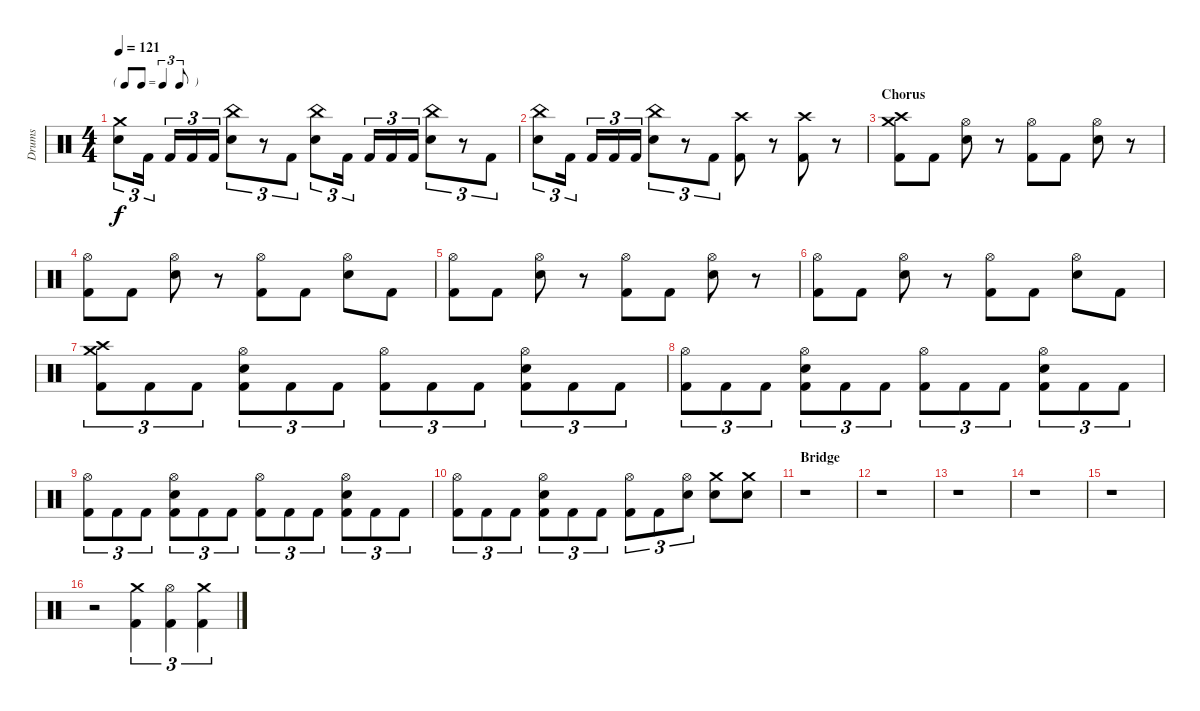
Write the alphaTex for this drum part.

\track ("Drums" "Drums") {instrument percussion}
\staff {score}
\articulation defaults
\ts (4 4)
\tf triplet8th
\tempo 121
\clef neutral
\ks c
("Crash medium (hit)" "Electric Snare (hit)").8{tu (3 2) dy f} "Kick (hit) 2".16{tu (3 2)} "Kick (hit) 2".16{tu (3 2)} "Kick (hit) 2".16{tu (3 2)} "Kick (hit) 2".16{tu (3 2)} ("China (hit)" "Electric Snare (hit)").8{tu (3 2)} r.8{tu (3 2)} "Kick (hit) 2".8{tu (3 2)} ("China (hit)" "Electric Snare (hit)").8{tu (3 2)} "Kick (hit) 2".16{tu (3 2)} "Kick (hit) 2".16{tu (3 2)} "Kick (hit) 2".16{tu (3 2)} "Kick (hit) 2".16{tu (3 2)} ("China (hit)" "Electric Snare (hit)").8{tu (3 2)} r.8{tu (3 2)} "Kick (hit) 2".8{tu (3 2)} |
("China (hit)" "Electric Snare (hit)").8{tu (3 2)} "Kick (hit) 2".16{tu (3 2)} "Kick (hit) 2".16{tu (3 2)} "Kick (hit) 2".16{tu (3 2)} "Kick (hit) 2".16{tu (3 2)} ("China (hit)" "Electric Snare (hit)").8{tu (3 2)} r.8{tu (3 2)} "Kick (hit) 2".8{tu (3 2)} ("Crash high (hit)" "Kick (hit) 2").8 r.8{volume 0} ("Crash high (hit)" "Kick (hit) 2").8{volume 15} r.8{volume 0} |
\section ("" "Chorus")
("Crash high (hit)" "Crash medium (hit)" "Kick (hit) 2").8{volume 15} "Kick (hit) 2".8 ("Hi-Hat (open)" "Electric Snare (hit)").8 r.8 ("Hi-Hat (open)" "Kick (hit) 2").8 "Kick (hit) 2".8 ("Hi-Hat (open)" "Electric Snare (hit)").8 r.8 |
("Hi-Hat (open)" "Kick (hit) 2").8 "Kick (hit) 2".8 ("Hi-Hat (open)" "Electric Snare (hit)").8 r.8 ("Hi-Hat (open)" "Kick (hit) 2").8 "Kick (hit) 2".8 ("Hi-Hat (open)" "Electric Snare (hit)").8 "Kick (hit) 2".8 |
("Hi-Hat (open)" "Kick (hit) 2").8 "Kick (hit) 2".8 ("Hi-Hat (open)" "Electric Snare (hit)").8 r.8 ("Hi-Hat (open)" "Kick (hit) 2").8 "Kick (hit) 2".8 ("Hi-Hat (open)" "Electric Snare (hit)").8 r.8 |
("Hi-Hat (open)" "Kick (hit) 2").8 "Kick (hit) 2".8 ("Hi-Hat (open)" "Electric Snare (hit)").8 r.8 ("Hi-Hat (open)" "Kick (hit) 2").8 "Kick (hit) 2".8 ("Hi-Hat (open)" "Electric Snare (hit)").8 "Kick (hit) 2".8 |
("Crash medium (hit)" "Crash high (hit)" "Kick (hit) 2").8{tu (3 2)} "Kick (hit) 2".8{tu (3 2)} "Kick (hit) 2".8{tu (3 2)} ("Hi-Hat (open)" "Electric Snare (hit)" "Kick (hit) 2").8{tu (3 2)} "Kick (hit) 2".8{tu (3 2)} "Kick (hit) 2".8{tu (3 2)} ("Hi-Hat (open)" "Kick (hit) 2").8{tu (3 2)} "Kick (hit) 2".8{tu (3 2)} "Kick (hit) 2".8{tu (3 2)} ("Hi-Hat (open)" "Electric Snare (hit)" "Kick (hit) 2").8{tu (3 2)} "Kick (hit) 2".8{tu (3 2)} "Kick (hit) 2".8{tu (3 2)} |
("Hi-Hat (open)" "Kick (hit) 2").8{tu (3 2)} "Kick (hit) 2".8{tu (3 2)} "Kick (hit) 2".8{tu (3 2)} ("Hi-Hat (open)" "Electric Snare (hit)" "Kick (hit) 2").8{tu (3 2)} "Kick (hit) 2".8{tu (3 2)} "Kick (hit) 2".8{tu (3 2)} ("Hi-Hat (open)" "Kick (hit) 2").8{tu (3 2)} "Kick (hit) 2".8{tu (3 2)} "Kick (hit) 2".8{tu (3 2)} ("Hi-Hat (open)" "Electric Snare (hit)" "Kick (hit) 2").8{tu (3 2)} "Kick (hit) 2".8{tu (3 2)} "Kick (hit) 2".8{tu (3 2)} |
("Hi-Hat (open)" "Kick (hit) 2").8{tu (3 2)} "Kick (hit) 2".8{tu (3 2)} "Kick (hit) 2".8{tu (3 2)} ("Hi-Hat (open)" "Electric Snare (hit)" "Kick (hit) 2").8{tu (3 2)} "Kick (hit) 2".8{tu (3 2)} "Kick (hit) 2".8{tu (3 2)} ("Hi-Hat (open)" "Kick (hit) 2").8{tu (3 2)} "Kick (hit) 2".8{tu (3 2)} "Kick (hit) 2".8{tu (3 2)} ("Hi-Hat (open)" "Electric Snare (hit)" "Kick (hit) 2").8{tu (3 2)} "Kick (hit) 2".8{tu (3 2)} "Kick (hit) 2".8{tu (3 2)} |
("Hi-Hat (open)" "Kick (hit) 2").8{tu (3 2)} "Kick (hit) 2".8{tu (3 2)} "Kick (hit) 2".8{tu (3 2)} ("Hi-Hat (open)" "Electric Snare (hit)" "Kick (hit) 2").8{tu (3 2)} "Kick (hit) 2".8{tu (3 2)} "Kick (hit) 2".8{tu (3 2)} ("Hi-Hat (open)" "Kick (hit) 2").8{tu (3 2)} "Kick (hit) 2".8{tu (3 2)} ("Hi-Hat (open)" "Electric Snare (hit)").8{tu (3 2)} ("Crash medium (hit)" "Electric Snare (hit)").8 ("Crash medium (hit)" "Electric Snare (hit)").8 |
\section ("" "Bridge")
r.1 |
r.1 |
r.1 |
r.1 |
r.1 |
r.2 ("Crash medium (hit)" "Kick (hit) 2").4{tu (3 2)} ("Hi-Hat (open)" "Kick (hit) 2").4{tu (3 2)} ("Crash medium (hit)" "Kick (hit) 2").4{tu (3 2)}
